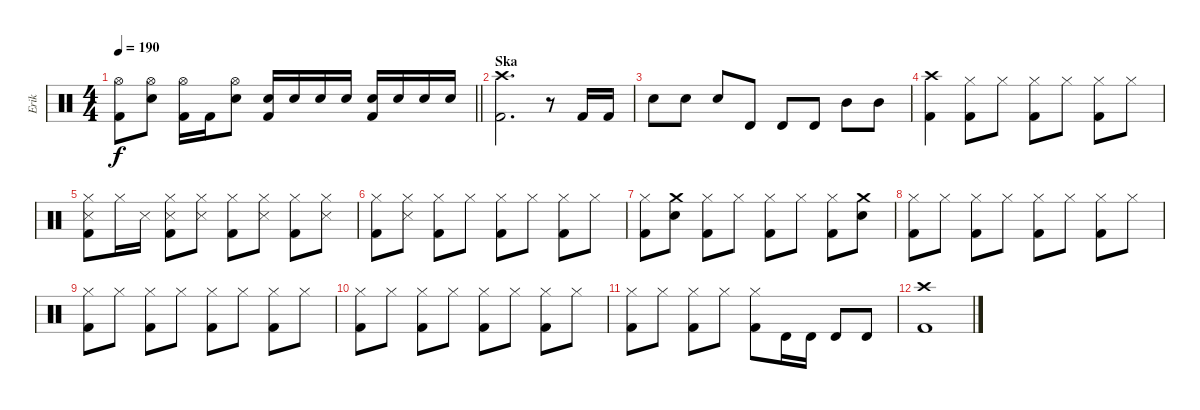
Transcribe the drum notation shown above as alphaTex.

\track ("Erik" "Erik") {instrument percussion}
\staff {score}
\articulation defaults
\ts (4 4)
\tempo 190
\clef neutral
\barLineRight lightlight
\ks c
("Hi-Hat (open)" "Kick (hit) 2").8{dy f} ("Hi-Hat (open)" "Snare (hit) 2").8 ("Hi-Hat (open)" "Kick (hit) 2").16 "Kick (hit) 2".16 ("Hi-Hat (open)" "Snare (hit) 2").8 ("Snare (hit) 2" "Kick (hit) 2").16 "Snare (hit) 2".16 "Snare (hit) 2".16 "Snare (hit) 2".16 ("Snare (hit) 2" "Kick (hit) 2").16 "Snare (hit) 2".16 "Snare (hit) 2".16 "Snare (hit) 2".16 |
\section ("" "Ska")
("Crash high (hit)" "Kick (hit) 2").2{d} r.8 "Kick (hit) 2".16 "Kick (hit) 2".16 |
"Snare (hit) 2".8 "Snare (hit) 2".8 "Snare (hit) 2".8 "Timbale high (hit)".8 "Timbale high (hit)".8 "Timbale high (hit)".8 "Mid Tom (hit)".8 "Mid Tom (hit)".8 |
("Crash high (hit)" "Kick (hit) 2").4 ("Hi-Hat (closed)" "Kick (hit) 2").8 "Hi-Hat (closed)".8 ("Hi-Hat (closed)" "Kick (hit) 2").8 "Hi-Hat (closed)".8 ("Hi-Hat (closed)" "Kick (hit) 2").8 "Hi-Hat (closed)".8 |
("Hi-Hat (closed)" "Snare (side stick) 3" "Kick (hit) 2").8 "Hi-Hat (closed)".16 "Snare (side stick) 3".16 ("Hi-Hat (closed)" "Snare (side stick) 3" "Kick (hit) 2").8 ("Hi-Hat (closed)" "Snare (side stick) 3").8 ("Hi-Hat (closed)" "Kick (hit) 2").8 ("Hi-Hat (closed)" "Snare (side stick) 3").8 ("Hi-Hat (closed)" "Kick (hit) 2").8 ("Hi-Hat (closed)" "Snare (side stick) 3").8 |
("Hi-Hat (closed)" "Kick (hit) 2").8 ("Hi-Hat (closed)" "Snare (side stick) 3").8 ("Hi-Hat (closed)" "Kick (hit) 2").8 "Hi-Hat (closed)".8 ("Hi-Hat (closed)" "Kick (hit) 2").8 "Hi-Hat (closed)".8 ("Hi-Hat (closed)" "Kick (hit) 2").8 "Hi-Hat (closed)".8 |
("Hi-Hat (closed)" "Kick (hit) 2").8 ("Crash medium (hit)" "Snare (hit) 2").8 ("Hi-Hat (closed)" "Kick (hit) 2").8 "Hi-Hat (closed)".8 ("Hi-Hat (closed)" "Kick (hit) 2").8 "Hi-Hat (closed)".8 ("Hi-Hat (closed)" "Kick (hit) 2").8 ("Crash medium (hit)" "Snare (hit) 2").8 |
("Hi-Hat (closed)" "Kick (hit) 2").8 "Hi-Hat (closed)".8 ("Hi-Hat (closed)" "Kick (hit) 2").8 "Hi-Hat (closed)".8 ("Hi-Hat (closed)" "Kick (hit) 2").8 "Hi-Hat (closed)".8 ("Hi-Hat (closed)" "Kick (hit) 2").8 "Hi-Hat (closed)".8 |
("Hi-Hat (closed)" "Kick (hit) 2").8 "Hi-Hat (closed)".8 ("Hi-Hat (closed)" "Kick (hit) 2").8 "Hi-Hat (closed)".8 ("Hi-Hat (closed)" "Kick (hit) 2").8 "Hi-Hat (closed)".8 ("Hi-Hat (closed)" "Kick (hit) 2").8 "Hi-Hat (closed)".8 |
("Hi-Hat (closed)" "Kick (hit) 2").8 "Hi-Hat (closed)".8 ("Hi-Hat (closed)" "Kick (hit) 2").8 "Hi-Hat (closed)".8 ("Hi-Hat (closed)" "Kick (hit) 2").8 "Hi-Hat (closed)".8 ("Hi-Hat (closed)" "Kick (hit) 2").8 "Hi-Hat (closed)".8 |
("Hi-Hat (closed)" "Kick (hit) 2").8 "Hi-Hat (closed)".8 ("Hi-Hat (closed)" "Kick (hit) 2").8 "Hi-Hat (closed)".8 ("Hi-Hat (closed)" "Kick (hit) 2").8 "Timbale high (hit)".16 "Timbale high (hit)".16 "Timbale high (hit)".8 "Timbale high (hit)".8 |
("Crash high (hit)" "Kick (hit) 2").1
